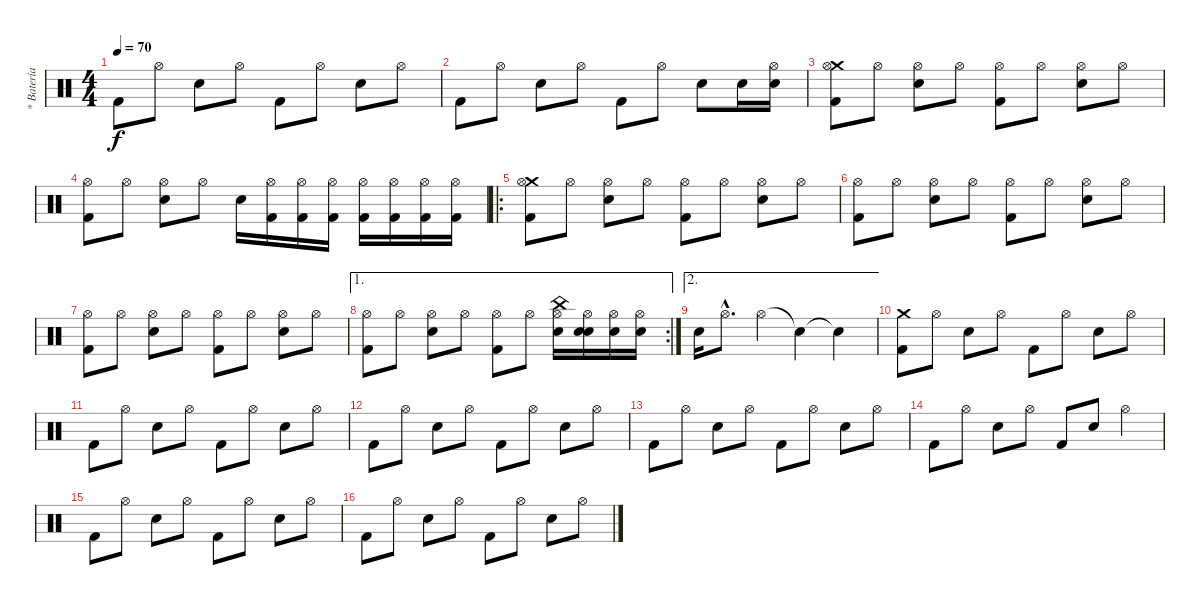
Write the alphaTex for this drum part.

\track ("* Batería (Francisco)" "* Batería ") {instrument percussion}
\staff {score}
\articulation defaults
\ts (4 4)
\tempo 70
\clef neutral
\ks c "Kick (hit) 2".8{dy f} "Hi-Hat (open)".8 "Snare (hit) 2".8 "Hi-Hat (open)".8 "Kick (hit) 2".8 "Hi-Hat (open)".8 "Snare (hit) 2".8 "Hi-Hat (open)".8
|
"Kick (hit) 2".8 "Hi-Hat (open)".8 "Snare (hit) 2".8 "Hi-Hat (open)".8 "Kick (hit) 2".8 "Hi-Hat (open)".8 "Snare (hit) 2".8 "Electric Snare (hit)".16 ("Hi-Hat (open)" "Snare (hit) 2").16 |
("Kick (hit) 2" "Crash medium (hit)" "Hi-Hat (open)").8 "Hi-Hat (open)".8 ("Snare (hit) 2" "Hi-Hat (open)").8 "Hi-Hat (open)".8 ("Kick (hit) 2" "Hi-Hat (open)").8 "Hi-Hat (open)".8 ("Snare (hit) 2" "Hi-Hat (open)").8 "Hi-Hat (open)".8 |
("Kick (hit) 2" "Hi-Hat (open)").8 "Hi-Hat (open)".8 ("Snare (hit) 2" "Hi-Hat (open)").8 "Hi-Hat (open)".8 "Electric Snare (hit)".16 ("Hi-Hat (open)" "Kick (hit) 2").16 ("Kick (hit) 2" "Hi-Hat (open)").16 ("Hi-Hat (open)" "Kick (hit) 2").16 ("Kick (hit) 2" "Hi-Hat (open)").16 ("Hi-Hat (open)" "Kick (hit) 2").16 ("Kick (hit) 2" "Hi-Hat (open)").16 ("Hi-Hat (open)" "Kick (hit) 2").16 |
\ro
("Kick (hit) 2" "Crash medium (hit)" "Hi-Hat (open)").8 "Hi-Hat (open)".8 ("Snare (hit) 2" "Hi-Hat (open)").8 "Hi-Hat (open)".8 ("Kick (hit) 2" "Hi-Hat (open)").8 "Hi-Hat (open)".8 ("Snare (hit) 2" "Hi-Hat (open)").8 "Hi-Hat (open)".8 |
("Kick (hit) 2" "Hi-Hat (open)").8 "Hi-Hat (open)".8 ("Snare (hit) 2" "Hi-Hat (open)").8 "Hi-Hat (open)".8 ("Kick (hit) 2" "Hi-Hat (open)").8 "Hi-Hat (open)".8 ("Snare (hit) 2" "Hi-Hat (open)").8 "Hi-Hat (open)".8 |
("Kick (hit) 2" "Hi-Hat (open)").8 "Hi-Hat (open)".8 ("Snare (hit) 2" "Hi-Hat (open)").8 "Hi-Hat (open)".8 ("Kick (hit) 2" "Hi-Hat (open)").8 "Hi-Hat (open)".8 ("Snare (hit) 2" "Hi-Hat (open)").8 "Hi-Hat (open)".8 |
\ae 1
\rc 2
("Kick (hit) 2" "Hi-Hat (open)").8 "Hi-Hat (open)".8 ("Snare (hit) 2" "Hi-Hat (open)").8 "Hi-Hat (open)".8 ("Kick (hit) 2" "Hi-Hat (open)").8 "Hi-Hat (open)".8 ("Hi-Hat (open)" "China (hit)" "Snare (hit) 2").16 ("Snare (hit) 2" "Electric Snare (hit)" "Hi-Hat (open)").16 ("Hi-Hat (open)" "Electric Snare (hit)").16 ("Hi-Hat (open)" "Electric Snare (hit)").16 |
\ae 2 "Electric Snare (hit)".16 "Hi-Hat (open)"{hac}.8{d} "Hi-Hat (open)".4 "Snare (hit)"{t}.4 "Snare (hit)"{t}.4
|
("Crash medium (hit)" "Kick (hit) 2").8 "Hi-Hat (open)".8 "Snare (hit) 2".8 "Hi-Hat (open)".8 "Kick (hit) 2".8 "Hi-Hat (open)".8 "Snare (hit) 2".8 "Hi-Hat (open)".8 |
"Kick (hit) 2".8 "Hi-Hat (open)".8 "Snare (hit) 2".8 "Hi-Hat (open)".8 "Kick (hit) 2".8 "Hi-Hat (open)".8 "Snare (hit) 2".8 "Hi-Hat (open)".8 |
"Kick (hit) 2".8 "Hi-Hat (open)".8 "Snare (hit) 2".8 "Hi-Hat (open)".8 "Kick (hit) 2".8 "Hi-Hat (open)".8 "Snare (hit) 2".8 "Hi-Hat (open)".8 |
"Kick (hit) 2".8 "Hi-Hat (open)".8 "Snare (hit) 2".8 "Hi-Hat (open)".8 "Kick (hit) 2".8 "Hi-Hat (open)".8 "Snare (hit) 2".8 "Hi-Hat (open)".8 |
"Kick (hit) 2".8 "Hi-Hat (open)".8 "Snare (hit) 2".8 "Hi-Hat (open)".8 "Kick (hit) 2".8 "Electric Snare (hit)".8 "Hi-Hat (open)".4 |
"Kick (hit) 2".8 "Hi-Hat (open)".8 "Snare (hit) 2".8 "Hi-Hat (open)".8 "Kick (hit) 2".8 "Hi-Hat (open)".8 "Snare (hit) 2".8 "Hi-Hat (open)".8 |
"Kick (hit) 2".8 "Hi-Hat (open)".8 "Snare (hit) 2".8 "Hi-Hat (open)".8 "Kick (hit) 2".8 "Hi-Hat (open)".8 "Snare (hit) 2".8 "Hi-Hat (open)".8
